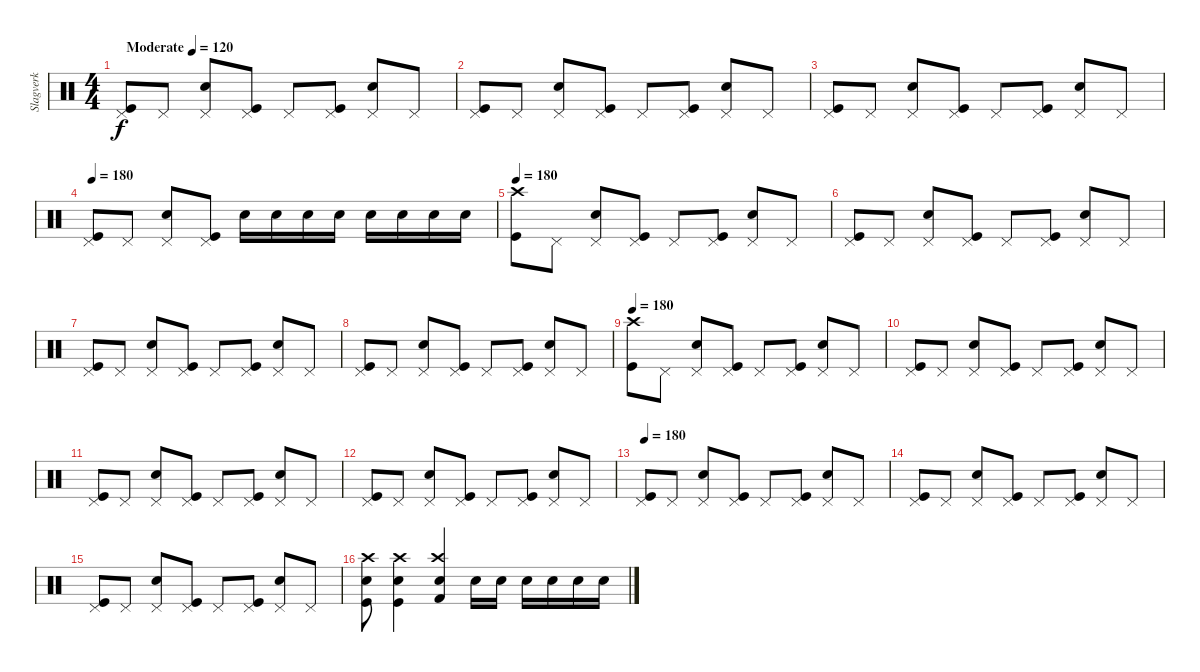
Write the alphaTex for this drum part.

\track ("Slagverk" "Slagverk") {instrument percussion}
\staff {score}
\articulation defaults
\ts (4 4)
\tempo (120 "Moderate")
\tempo 180
\tempo (120 "Moderate")
\clef neutral
\ks c
("Pedal Hi-Hat (hit)" "Kick (hit)").8{dy f} "Pedal Hi-Hat (hit)".8 ("Pedal Hi-Hat (hit)" "Electric Snare (hit)").8 ("Pedal Hi-Hat (hit)" "Kick (hit)").8 "Pedal Hi-Hat (hit)".8 ("Pedal Hi-Hat (hit)" "Kick (hit)").8 ("Pedal Hi-Hat (hit)" "Electric Snare (hit)").8 "Pedal Hi-Hat (hit)".8 |
("Pedal Hi-Hat (hit)" "Kick (hit)").8 "Pedal Hi-Hat (hit)".8 ("Pedal Hi-Hat (hit)" "Electric Snare (hit)").8 ("Pedal Hi-Hat (hit)" "Kick (hit)").8 "Pedal Hi-Hat (hit)".8 ("Pedal Hi-Hat (hit)" "Kick (hit)").8 ("Pedal Hi-Hat (hit)" "Electric Snare (hit)").8 "Pedal Hi-Hat (hit)".8 |
("Pedal Hi-Hat (hit)" "Kick (hit)").8 "Pedal Hi-Hat (hit)".8 ("Pedal Hi-Hat (hit)" "Electric Snare (hit)").8 ("Pedal Hi-Hat (hit)" "Kick (hit)").8 "Pedal Hi-Hat (hit)".8 ("Pedal Hi-Hat (hit)" "Kick (hit)").8 ("Pedal Hi-Hat (hit)" "Electric Snare (hit)").8 "Pedal Hi-Hat (hit)".8 |
\tempo 180
("Pedal Hi-Hat (hit)" "Kick (hit)").8 "Pedal Hi-Hat (hit)".8 ("Pedal Hi-Hat (hit)" "Electric Snare (hit)").8 ("Pedal Hi-Hat (hit)" "Kick (hit)").8 "Electric Snare (hit)".16 "Electric Snare (hit)".16 "Electric Snare (hit)".16 "Electric Snare (hit)".16 "Electric Snare (hit)".16 "Electric Snare (hit)".16 "Electric Snare (hit)".16 "Electric Snare (hit)".16 |
\tempo 180
("Crash high (hit)" "Kick (hit)").8 "Pedal Hi-Hat (hit)".8 ("Pedal Hi-Hat (hit)" "Electric Snare (hit)").8 ("Pedal Hi-Hat (hit)" "Kick (hit)").8 "Pedal Hi-Hat (hit)".8 ("Pedal Hi-Hat (hit)" "Kick (hit)").8 ("Pedal Hi-Hat (hit)" "Electric Snare (hit)").8 "Pedal Hi-Hat (hit)".8 |
("Pedal Hi-Hat (hit)" "Kick (hit)").8 "Pedal Hi-Hat (hit)".8 ("Pedal Hi-Hat (hit)" "Electric Snare (hit)").8 ("Pedal Hi-Hat (hit)" "Kick (hit)").8 "Pedal Hi-Hat (hit)".8 ("Pedal Hi-Hat (hit)" "Kick (hit)").8 ("Pedal Hi-Hat (hit)" "Electric Snare (hit)").8 "Pedal Hi-Hat (hit)".8 |
("Pedal Hi-Hat (hit)" "Kick (hit)").8 "Pedal Hi-Hat (hit)".8 ("Pedal Hi-Hat (hit)" "Electric Snare (hit)").8 ("Pedal Hi-Hat (hit)" "Kick (hit)").8 "Pedal Hi-Hat (hit)".8 ("Pedal Hi-Hat (hit)" "Kick (hit)").8 ("Pedal Hi-Hat (hit)" "Electric Snare (hit)").8 "Pedal Hi-Hat (hit)".8 |
("Pedal Hi-Hat (hit)" "Kick (hit)").8 "Pedal Hi-Hat (hit)".8 ("Pedal Hi-Hat (hit)" "Electric Snare (hit)").8 ("Pedal Hi-Hat (hit)" "Kick (hit)").8 "Pedal Hi-Hat (hit)".8 ("Pedal Hi-Hat (hit)" "Kick (hit)").8 ("Pedal Hi-Hat (hit)" "Electric Snare (hit)").8 "Pedal Hi-Hat (hit)".8 |
\tempo 180
("Crash high (hit)" "Kick (hit)").8 "Pedal Hi-Hat (hit)".8 ("Pedal Hi-Hat (hit)" "Electric Snare (hit)").8 ("Pedal Hi-Hat (hit)" "Kick (hit)").8 "Pedal Hi-Hat (hit)".8 ("Pedal Hi-Hat (hit)" "Kick (hit)").8 ("Pedal Hi-Hat (hit)" "Electric Snare (hit)").8 "Pedal Hi-Hat (hit)".8 |
("Pedal Hi-Hat (hit)" "Kick (hit)").8 "Pedal Hi-Hat (hit)".8 ("Pedal Hi-Hat (hit)" "Electric Snare (hit)").8 ("Pedal Hi-Hat (hit)" "Kick (hit)").8 "Pedal Hi-Hat (hit)".8 ("Pedal Hi-Hat (hit)" "Kick (hit)").8 ("Pedal Hi-Hat (hit)" "Electric Snare (hit)").8 "Pedal Hi-Hat (hit)".8 |
("Pedal Hi-Hat (hit)" "Kick (hit)").8 "Pedal Hi-Hat (hit)".8 ("Pedal Hi-Hat (hit)" "Electric Snare (hit)").8 ("Pedal Hi-Hat (hit)" "Kick (hit)").8 "Pedal Hi-Hat (hit)".8 ("Pedal Hi-Hat (hit)" "Kick (hit)").8 ("Pedal Hi-Hat (hit)" "Electric Snare (hit)").8 "Pedal Hi-Hat (hit)".8 |
("Pedal Hi-Hat (hit)" "Kick (hit)").8 "Pedal Hi-Hat (hit)".8 ("Pedal Hi-Hat (hit)" "Electric Snare (hit)").8 ("Pedal Hi-Hat (hit)" "Kick (hit)").8 "Pedal Hi-Hat (hit)".8 ("Pedal Hi-Hat (hit)" "Kick (hit)").8 ("Pedal Hi-Hat (hit)" "Electric Snare (hit)").8 "Pedal Hi-Hat (hit)".8 |
\tempo 180
("Pedal Hi-Hat (hit)" "Kick (hit)").8 "Pedal Hi-Hat (hit)".8 ("Pedal Hi-Hat (hit)" "Electric Snare (hit)").8 ("Pedal Hi-Hat (hit)" "Kick (hit)").8 "Pedal Hi-Hat (hit)".8 ("Pedal Hi-Hat (hit)" "Kick (hit)").8 ("Pedal Hi-Hat (hit)" "Electric Snare (hit)").8 "Pedal Hi-Hat (hit)".8 |
("Pedal Hi-Hat (hit)" "Kick (hit)").8 "Pedal Hi-Hat (hit)".8 ("Pedal Hi-Hat (hit)" "Electric Snare (hit)").8 ("Pedal Hi-Hat (hit)" "Kick (hit)").8 "Pedal Hi-Hat (hit)".8 ("Pedal Hi-Hat (hit)" "Kick (hit)").8 ("Pedal Hi-Hat (hit)" "Electric Snare (hit)").8 "Pedal Hi-Hat (hit)".8 |
("Pedal Hi-Hat (hit)" "Kick (hit)").8 "Pedal Hi-Hat (hit)".8 ("Pedal Hi-Hat (hit)" "Electric Snare (hit)").8 ("Pedal Hi-Hat (hit)" "Kick (hit)").8 "Pedal Hi-Hat (hit)".8 ("Pedal Hi-Hat (hit)" "Kick (hit)").8 ("Pedal Hi-Hat (hit)" "Electric Snare (hit)").8 "Pedal Hi-Hat (hit)".8 |
("Crash high (hit)" "Electric Snare (hit)" "Kick (hit)").8 ("Crash high (hit)" "Electric Snare (hit)" "Kick (hit)").4 ("Electric Snare (hit)" "Kick (hit) 2" "Crash high (hit)").4 "Electric Snare (hit)".16 "Electric Snare (hit)".16 "Electric Snare (hit)".16 "Electric Snare (hit)".16 "Electric Snare (hit)".16 "Electric Snare (hit)".16
